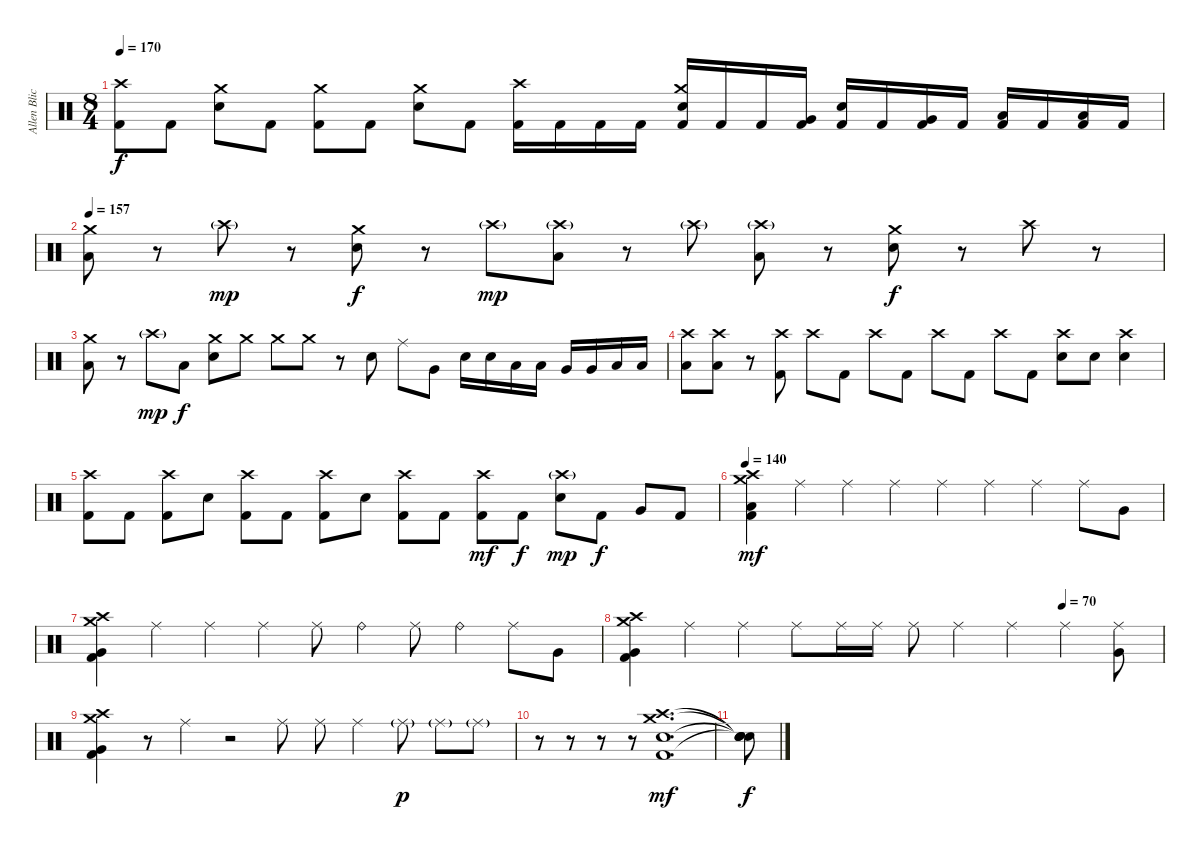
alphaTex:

\track ("Allen Blickle" "Allen Blic") {instrument percussion}
\staff {score}
\articulation defaults
\ts (8 4)
\tempo 170
\clef neutral
\ks c
("Crash high (hit)" "Kick (hit) 2").8{dy f} "Kick (hit) 2".8 ("Crash medium (hit)" "Electric Snare (hit)").8 "Kick (hit) 2".8 ("Crash medium (hit)" "Kick (hit) 2").8 "Kick (hit) 2".8 ("Crash medium (hit)" "Electric Snare (hit)").8 "Kick (hit) 2".8 ("Kick (hit) 2" "Crash high (hit)").16 "Kick (hit) 2".16 "Kick (hit) 2".16 "Kick (hit) 2".16 ("Kick (hit) 2" "Crash medium (hit)" "Electric Snare (hit)").16 "Kick (hit) 2".16 "Kick (hit) 2".16 ("Kick (hit) 2" "Very Low Tom (hit)").16 ("Kick (hit) 2" "Electric Snare (hit)").16 "Kick (hit) 2".16 ("Kick (hit) 2" "Very Low Tom (hit)").16 "Kick (hit) 2".16 ("Kick (hit) 2" "Low Floor Tom (hit)").16 "Kick (hit) 2".16 ("Kick (hit) 2" "Low Floor Tom (hit)").16 "Kick (hit) 2".16 |
\tempo 157
("Crash medium (hit)" "Low Floor Tom (hit)").8 r.8 "Crash high (hit)"{g}.8{dy mp} r.8 ("Crash medium (hit)" "Electric Snare (hit)").8{dy f} r.8 "Crash high (hit)"{g}.8{dy mp} ("Crash high (hit)"{g} "Low Floor Tom (hit)").8 r.8 "Crash high (hit)"{g}.8 ("Crash high (hit)"{g} "Low Floor Tom (hit)").8 r.8 ("Crash medium (hit)" "Electric Snare (hit)").8{dy f} r.8 "Crash high (hit)".8 r.8 |
("Crash medium (hit)" "Low Floor Tom (hit)").8 r.8 "Crash high (hit)"{g}.8{dy mp} "Low Floor Tom (hit)".8{dy f} ("Crash medium (hit)" "Electric Snare (hit)").8 "Crash medium (hit)".8 "Crash medium (hit)".8 "Crash medium (hit)".8 r.8 "Electric Snare (hit)".8 "Ride (middle)".8 "Very Low Tom (hit)".8 "Electric Snare (hit)".16 "Electric Snare (hit)".16 "Low Tom (hit)".16 "Low Tom (hit)".16 "Very Low Tom (hit)".16 "Very Low Tom (hit)".16 "Low Floor Tom (hit)".16 "Low Floor Tom (hit)".16 |
("Crash high (hit)" "Low Floor Tom (hit)").8 ("Crash high (hit)" "Low Floor Tom (hit)").8 r.8 ("Crash high (hit)" "Kick (hit) 2").8 "Crash high (hit)".8 "Kick (hit) 2".8 "Crash high (hit)".8 "Kick (hit) 2".8 "Crash high (hit)".8 "Kick (hit) 2".8 "Crash high (hit)".8 "Kick (hit) 2".8 ("Crash high (hit)" "Electric Snare (hit)").8 "Electric Snare (hit)".8 ("Crash high (hit)" "Electric Snare (hit)").4 |
("Crash high (hit)" "Kick (hit) 2").8 "Kick (hit) 2".8 ("Crash high (hit)" "Kick (hit) 2").8 "Electric Snare (hit)".8 ("Crash high (hit)" "Kick (hit) 2").8 "Kick (hit) 2".8 ("Crash high (hit)" "Kick (hit) 2").8 "Electric Snare (hit)".8 ("Crash high (hit)" "Kick (hit) 2").8 "Kick (hit) 2".8 ("Crash high (hit)" "Kick (hit) 2").8{dy mf} "Kick (hit) 2".8{dy f} ("Crash high (hit)"{g} "Electric Snare (hit)").8{dy mp} "Kick (hit) 2".8{dy f} "Very Low Tom (hit)".8 "Kick (hit) 2".8 |
\tempo 140
("Crash medium (hit)" "Crash high (hit)" "Low Floor Tom (hit)" "Kick (hit) 2").4{dy mf} "Ride (middle)".4 "Ride (middle)".4 "Ride (middle)".4 "Ride (middle)".4 "Ride (middle)".4 "Ride (middle)".4 "Ride (middle)".8 "Very Low Tom (hit)".8 |
("Crash medium (hit)" "Crash high (hit)" "Kick (hit) 2" "Very Low Tom (hit)").4 "Ride (middle)".4 "Ride (middle)".4 "Ride (middle)".4 "Ride (middle)".8 "Ride (bell)".4 "Ride (middle)".8 "Ride (bell)".4 "Ride (middle)".8 "Very Low Tom (hit)".8 |
\tempo (70 0.8125)
("Crash medium (hit)" "Crash high (hit)" "Kick (hit) 2" "Very Low Tom (hit)").4 "Ride (middle)".4 "Ride (middle)".4 "Ride (middle)".8 "Ride (middle)".16 "Ride (middle)".16 "Ride (middle)".8 "Ride (middle)".4 "Ride (middle)".4 "Ride (middle)".4 ("Ride (middle)" "Very Low Tom (hit)").8 |
("Crash medium (hit)" "Crash high (hit)" "Kick (hit) 2" "Very Low Tom (hit)").4 r.8 "Ride (middle)".4 r.2 "Ride (middle)".8 "Ride (middle)".8 "Ride (middle)".4 "Ride (middle)"{g}.8{dy p} "Ride (middle)"{g}.8 "Ride (middle)"{g}.8 |
r.8 r.8 r.8 r.8 ("Crash medium (hit)" "Crash high (hit)" "Electric Snare (hit)" "Kick (hit) 2").1{d dy mf} |
("Snare (hit)"{t} "Snare (hit)"{t} "Snare (hit)"{t} "Snare (hit)"{t}).8{dy f}
